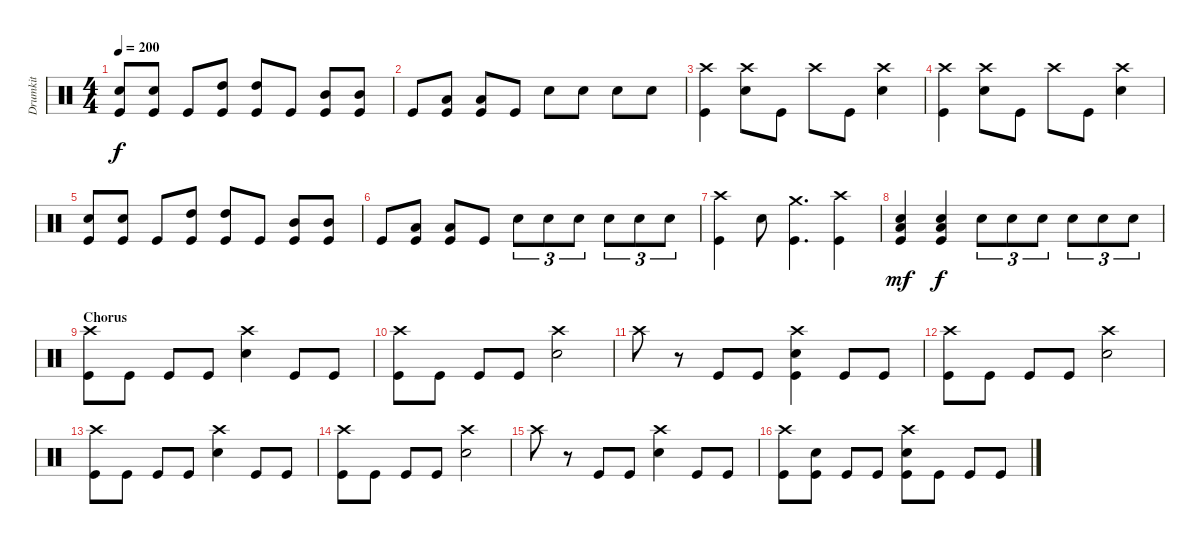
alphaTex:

\track ("Drumkit" "Drumkit") {instrument percussion}
\staff {score}
\articulation defaults
\ts (4 4)
\tempo 200
\clef neutral
\ks c
("Kick (hit)" "Snare (hit) 2").8{dy f} ("Kick (hit)" "Snare (hit) 2").8 "Kick (hit)".8 ("Kick (hit)" "High Tom (hit)").8 ("Kick (hit)" "High Tom (hit)").8 "Kick (hit)".8 ("Kick (hit)" "Mid Tom (hit)").8 ("Kick (hit)" "Mid Tom (hit)").8 |
"Kick (hit)".8 ("Kick (hit)" "Low Tom (hit)").8 ("Kick (hit)" "Low Tom (hit)").8 "Kick (hit)".8 "Snare (hit) 2".8 "Snare (hit) 2".8 "Snare (hit) 2".8 "Snare (hit) 2".8 |
("Kick (hit)" "Crash high (hit)").4 ("Snare (hit) 2" "Crash high (hit)").8 "Kick (hit)".8 "Crash high (hit)".8 "Kick (hit)".8 ("Snare (hit) 2" "Crash high (hit)").4 |
("Kick (hit)" "Crash high (hit)").4 ("Snare (hit) 2" "Crash high (hit)").8 "Kick (hit)".8 "Crash high (hit)".8 "Kick (hit)".8 ("Snare (hit) 2" "Crash high (hit)").4 |
("Kick (hit)" "Snare (hit) 2").8 ("Kick (hit)" "Snare (hit) 2").8 "Kick (hit)".8 ("Kick (hit)" "High Tom (hit)").8 ("Kick (hit)" "High Tom (hit)").8 "Kick (hit)".8 ("Kick (hit)" "Mid Tom (hit)").8 ("Kick (hit)" "Mid Tom (hit)").8 |
"Kick (hit)".8 ("Kick (hit)" "Low Tom (hit)").8 ("Kick (hit)" "Low Tom (hit)").8 "Kick (hit)".8 "Snare (hit) 2".8{tu (3 2)} "Snare (hit) 2".8{tu (3 2)} "Snare (hit) 2".8{tu (3 2)} "Snare (hit) 2".8{tu (3 2)} "Snare (hit) 2".8{tu (3 2)} "Snare (hit) 2".8{tu (3 2)} |
("Kick (hit)" "Crash high (hit)").4 "Snare (hit) 2".8 ("Kick (hit)" "Crash medium (hit)").4{d} ("Kick (hit)" "Crash high (hit)").4 |
("Kick (hit)" "Snare (hit) 2" "Low Floor Tom (hit)").4{dy mf} ("Kick (hit)" "Snare (hit) 2" "Low Floor Tom (hit)").4{dy f} "Snare (hit) 2".8{tu (3 2)} "Snare (hit) 2".8{tu (3 2)} "Snare (hit) 2".8{tu (3 2)} "Snare (hit) 2".8{tu (3 2)} "Snare (hit) 2".8{tu (3 2)} "Snare (hit) 2".8{tu (3 2)} |
\section ("" "Chorus")
("Kick (hit)" "Crash high (hit)").8 "Kick (hit)".8 "Kick (hit)".8 "Kick (hit)".8 ("Snare (hit) 2" "Crash high (hit)").4 "Kick (hit)".8 "Kick (hit)".8 |
("Kick (hit)" "Crash high (hit)").8 "Kick (hit)".8 "Kick (hit)".8 "Kick (hit)".8 ("Snare (hit) 2" "Crash high (hit)").2 |
"Crash high (hit)".8 r.8 "Kick (hit)".8 "Kick (hit)".8 ("Snare (hit) 2" "Crash high (hit)" "Kick (hit)").4 "Kick (hit)".8 "Kick (hit)".8 |
("Kick (hit)" "Crash high (hit)").8 "Kick (hit)".8 "Kick (hit)".8 "Kick (hit)".8 ("Snare (hit) 2" "Crash high (hit)").2 |
("Kick (hit)" "Crash high (hit)").8 "Kick (hit)".8 "Kick (hit)".8 "Kick (hit)".8 ("Snare (hit) 2" "Crash high (hit)").4 "Kick (hit)".8 "Kick (hit)".8 |
("Kick (hit)" "Crash high (hit)").8 "Kick (hit)".8 "Kick (hit)".8 "Kick (hit)".8 ("Snare (hit) 2" "Crash high (hit)").2 |
"Crash high (hit)".8 r.8 "Kick (hit)".8 "Kick (hit)".8 ("Snare (hit) 2" "Crash high (hit)").4 "Kick (hit)".8 "Kick (hit)".8 |
("Kick (hit)" "Crash high (hit)").8 ("Kick (hit)" "Snare (hit) 2").8 "Kick (hit)".8 "Kick (hit)".8 ("Snare (hit) 2" "Crash high (hit)" "Kick (hit)").8 "Kick (hit)".8 "Kick (hit)".8 "Kick (hit)".8
